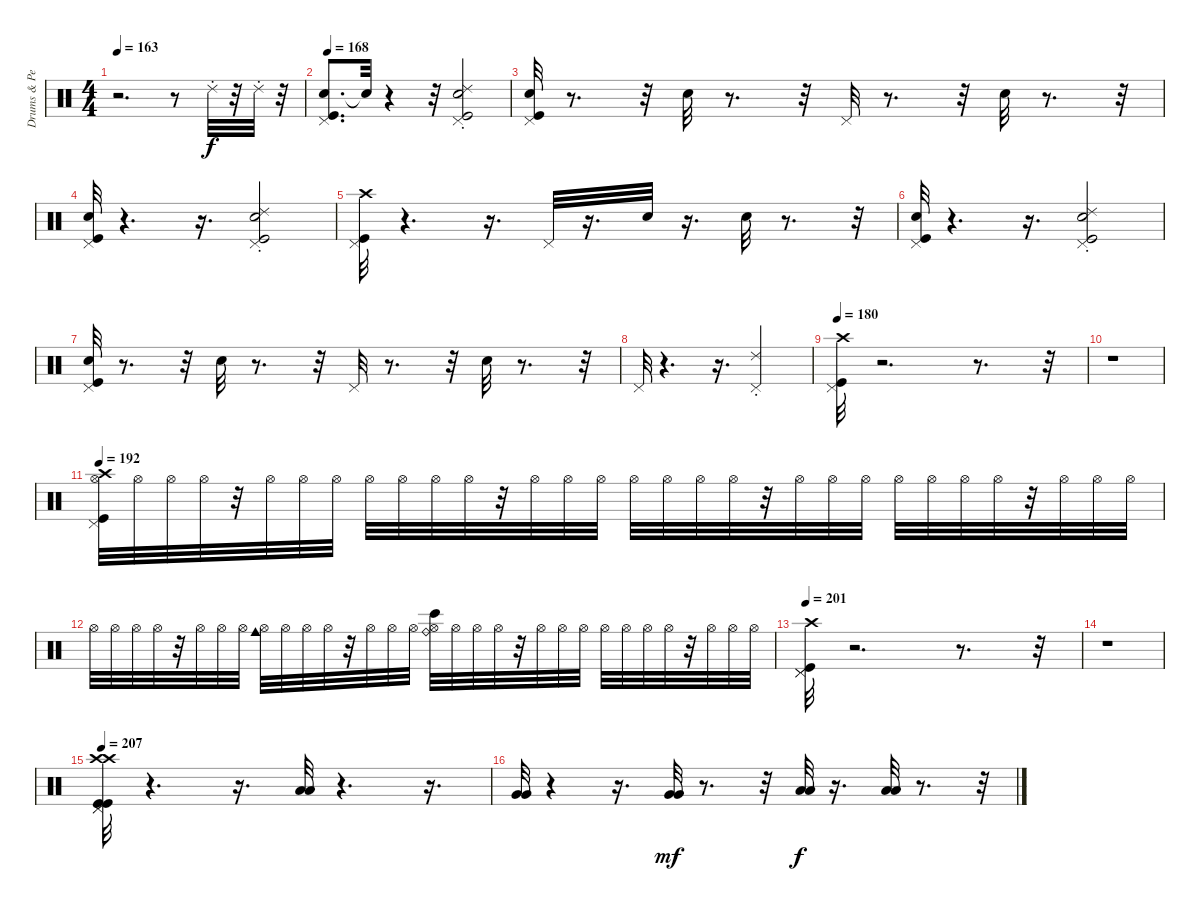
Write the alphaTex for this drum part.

\track ("Drums & Percussion" "Drums & Pe") {instrument percussion}
\staff {score}
\articulation defaults
\ts (4 4)
\tempo 163
\clef neutral
\ks c
r.2{d dy f} r.8 "Ride (choke) 2".32 r.32 "Ride (choke) 2".32 r.32 |
\tempo 168
("Snare (hit) 2" "Pedal Hi-Hat (hit)" "Kick (hit)").8{d} "Snare (hit)"{t}.32 r.4 r.32 ("Pedal Hi-Hat (hit)" "Kick (hit)" "Snare (hit) 2" "Ride (choke) 2").2 |
("Kick (hit)" "Snare (hit) 2" "Pedal Hi-Hat (hit)").32 r.8{d} r.32 "Snare (hit) 2".32 r.8{d} r.32 "Pedal Hi-Hat (hit)".32 r.8{d} r.32 "Snare (hit) 2".32 r.8{d} r.32 |
("Snare (hit) 2" "Kick (hit)" "Pedal Hi-Hat (hit)").32 r.4{d} r.16{d} ("Snare (hit) 2" "Kick (hit)" "Pedal Hi-Hat (hit)" "Ride (choke) 2").2 |
("Crash high (hit)" "Kick (hit)" "Pedal Hi-Hat (hit)").32 r.4{d} r.16{d} "Pedal Hi-Hat (hit)".32 r.16{d} "Electric Snare (hit)".32 r.16{d} "Electric Snare (hit)".32 r.8{d} r.32 |
("Kick (hit)" "Snare (hit) 2" "Pedal Hi-Hat (hit)").32 r.4{d} r.16{d} ("Kick (hit)" "Snare (hit) 2" "Pedal Hi-Hat (hit)" "Ride (choke) 2").2 |
("Kick (hit)" "Snare (hit) 2" "Pedal Hi-Hat (hit)").32 r.8{d} r.32 "Snare (hit) 2".32 r.8{d} r.32 "Pedal Hi-Hat (hit)".32 r.8{d} r.32 "Snare (hit) 2".32 r.8{d} r.32 |
"Pedal Hi-Hat (hit)".32 r.4{d} r.16{d} ("Ride (choke) 2" "Pedal Hi-Hat (hit)").2 |
\tempo 180
("Kick (hit)" "Crash high (hit)" "Pedal Hi-Hat (hit)").32 r.2{d} r.8{d} r.32 |
r.1 |
\tempo 192
("Kick (hit)" "Crash high (hit)" "Pedal Hi-Hat (hit)" "Hi-Hat (open)").32 "Hi-Hat (open)".32 "Hi-Hat (open)".32 "Hi-Hat (open)".32 r.32 "Hi-Hat (open)".32 "Hi-Hat (open)".32 "Hi-Hat (open)".32 "Hi-Hat (open)".32 "Hi-Hat (open)".32 "Hi-Hat (open)".32 "Hi-Hat (open)".32 r.32 "Hi-Hat (open)".32 "Hi-Hat (open)".32 "Hi-Hat (open)".32 "Hi-Hat (open)".32 "Hi-Hat (open)".32 "Hi-Hat (open)".32 "Hi-Hat (open)".32 r.32 "Hi-Hat (open)".32 "Hi-Hat (open)".32 "Hi-Hat (open)".32 "Hi-Hat (open)".32 "Hi-Hat (open)".32 "Hi-Hat (open)".32 "Hi-Hat (open)".32 r.32 "Hi-Hat (open)".32 "Hi-Hat (open)".32 "Hi-Hat (open)".32 |
"Hi-Hat (open)".32 "Hi-Hat (open)".32 "Hi-Hat (open)".32 "Hi-Hat (open)".32 r.32 "Hi-Hat (open)".32 "Hi-Hat (open)".32 "Hi-Hat (open)".32 ("Hi-Hat (open)" "Cowbell medium (hit)").32 "Hi-Hat (open)".32 "Hi-Hat (open)".32 "Hi-Hat (open)".32 r.32 "Hi-Hat (open)".32 "Hi-Hat (open)".32 "Hi-Hat (open)".32 ("Hi-Hat (open)" "Ride (bell)" "Bongo High (hit)").32 "Hi-Hat (open)".32 "Hi-Hat (open)".32 "Hi-Hat (open)".32 r.32 "Hi-Hat (open)".32 "Hi-Hat (open)".32 "Hi-Hat (open)".32 "Hi-Hat (open)".32 "Hi-Hat (open)".32 "Hi-Hat (open)".32 "Hi-Hat (open)".32 r.32 "Hi-Hat (open)".32 "Hi-Hat (open)".32 "Hi-Hat (open)".32 |
\tempo 201
("Pedal Hi-Hat (hit)" "Kick (hit)" "Crash high (hit)" "Pedal Hi-Hat (hit)").32 r.2{d} r.8{d} r.32 |
r.1 |
\tempo 207
("Kick (hit)" "Crash high (hit)" "Pedal Hi-Hat (hit)" "Kick (hit)" "Crash high (hit)" "Pedal Hi-Hat (hit)").32 r.4{d} r.16{d} ("Low Tom (hit)" "Low Tom (hit)").32 r.4{d} r.16{d} |
("Very Low Tom (hit)" "Very Low Tom (hit)").32 r.4 r.16{d} ("Very Low Tom (hit)" "Very Low Tom (hit)").32{dy mf} r.8{d} r.32 ("Low Floor Tom (hit)" "Low Floor Tom (hit)").32{dy f} r.16{d} ("Low Floor Tom (hit)" "Low Floor Tom (hit)").32 r.8{d} r.32
